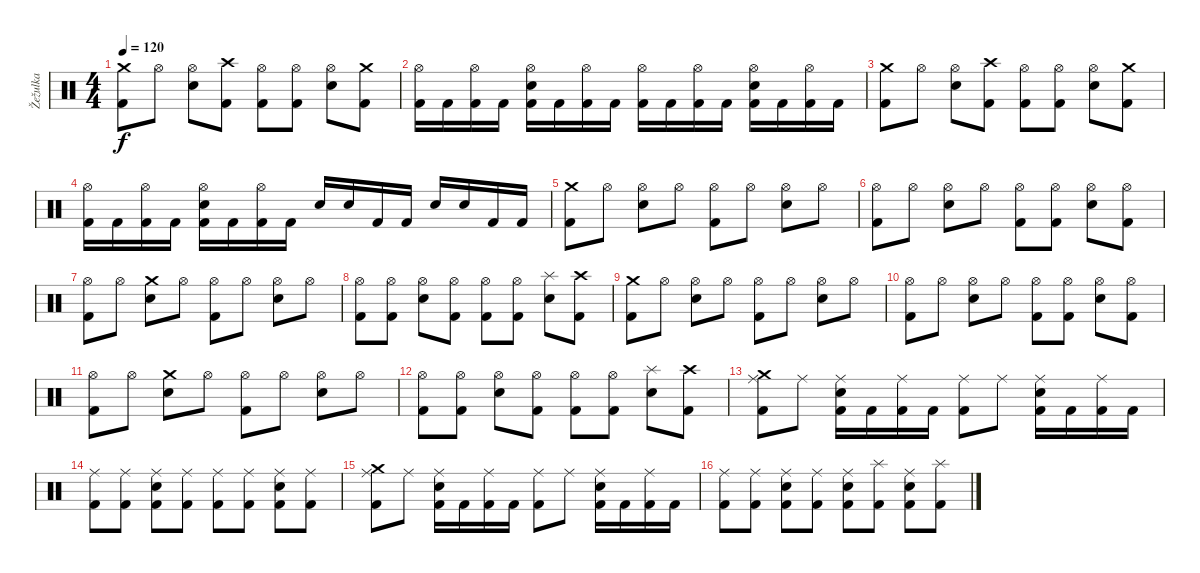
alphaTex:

\track ("Žežulka" "Žežulka") {instrument percussion}
\staff {score}
\articulation defaults
\ts (4 4)
\tempo 120
\clef neutral
\ks c
("Crash medium (hit)" "Kick (hit) 2").8{dy f} "Hi-Hat (open)".8 ("Hi-Hat (open)" "Snare (hit) 2").8 ("Crash high (hit)" "Kick (hit) 2").8 ("Hi-Hat (open)" "Kick (hit) 2").8 ("Hi-Hat (open)" "Kick (hit) 2").8 ("Hi-Hat (open)" "Snare (hit) 2").8 ("Crash medium (hit)" "Kick (hit) 2").8 |
("Hi-Hat (open)" "Kick (hit) 2").16 "Kick (hit) 2".16 ("Hi-Hat (open)" "Kick (hit) 2").16 "Kick (hit) 2".16 ("Hi-Hat (open)" "Snare (hit) 2" "Kick (hit) 2").16 "Kick (hit) 2".16 ("Hi-Hat (open)" "Kick (hit) 2").16 "Kick (hit) 2".16 ("Hi-Hat (open)" "Kick (hit) 2").16 "Kick (hit) 2".16 ("Hi-Hat (open)" "Kick (hit) 2").16 "Kick (hit) 2".16 ("Hi-Hat (open)" "Snare (hit) 2" "Kick (hit) 2").16 "Kick (hit) 2".16 ("Hi-Hat (open)" "Kick (hit) 2").16 "Kick (hit) 2".16 |
("Crash medium (hit)" "Kick (hit) 2").8 "Hi-Hat (open)".8 ("Hi-Hat (open)" "Snare (hit) 2").8 ("Crash high (hit)" "Kick (hit) 2").8 ("Hi-Hat (open)" "Kick (hit) 2").8 ("Hi-Hat (open)" "Kick (hit) 2").8 ("Hi-Hat (open)" "Snare (hit) 2").8 ("Crash medium (hit)" "Kick (hit) 2").8 |
("Hi-Hat (open)" "Kick (hit) 2").16 "Kick (hit) 2".16 ("Hi-Hat (open)" "Kick (hit) 2").16 "Kick (hit) 2".16 ("Hi-Hat (open)" "Snare (hit) 2" "Kick (hit) 2").16 "Kick (hit) 2".16 ("Hi-Hat (open)" "Kick (hit) 2").16 "Kick (hit) 2".16 "Snare (hit) 2".16 "Snare (hit) 2".16 "Kick (hit) 2".16 "Kick (hit) 2".16 "Snare (hit) 2".16 "Snare (hit) 2".16 "Kick (hit) 2".16 "Kick (hit) 2".16 |
("Crash medium (hit)" "Kick (hit) 2").8 "Hi-Hat (open)".8 ("Hi-Hat (open)" "Snare (hit) 2").8 "Hi-Hat (open)".8 ("Hi-Hat (open)" "Kick (hit) 2").8 "Hi-Hat (open)".8 ("Hi-Hat (open)" "Snare (hit) 2").8 "Hi-Hat (open)".8 |
("Hi-Hat (open)" "Kick (hit) 2").8 "Hi-Hat (open)".8 ("Hi-Hat (open)" "Snare (hit) 2").8 "Hi-Hat (open)".8 ("Hi-Hat (open)" "Kick (hit) 2").8 ("Hi-Hat (open)" "Kick (hit) 2").8 ("Hi-Hat (open)" "Snare (hit) 2").8 ("Hi-Hat (open)" "Kick (hit) 2").8 |
("Hi-Hat (open)" "Kick (hit) 2").8 "Hi-Hat (open)".8 ("Crash medium (hit)" "Snare (hit) 2").8 "Hi-Hat (open)".8 ("Hi-Hat (open)" "Kick (hit) 2").8 "Hi-Hat (open)".8 ("Hi-Hat (open)" "Snare (hit) 2").8 "Hi-Hat (open)".8 |
("Hi-Hat (open)" "Kick (hit) 2").8 ("Hi-Hat (open)" "Kick (hit) 2").8 ("Hi-Hat (open)" "Snare (hit) 2").8 ("Hi-Hat (open)" "Kick (hit) 2").8 ("Hi-Hat (open)" "Kick (hit) 2").8 ("Hi-Hat (open)" "Kick (hit) 2").8 ("Splash (hit)" "Snare (hit) 2").8 ("Crash high (hit)" "Kick (hit) 2").8 |
("Crash medium (hit)" "Kick (hit) 2").8 "Hi-Hat (open)".8 ("Hi-Hat (open)" "Snare (hit) 2").8 "Hi-Hat (open)".8 ("Hi-Hat (open)" "Kick (hit) 2").8 "Hi-Hat (open)".8 ("Hi-Hat (open)" "Snare (hit) 2").8 "Hi-Hat (open)".8 |
("Hi-Hat (open)" "Kick (hit) 2").8 "Hi-Hat (open)".8 ("Hi-Hat (open)" "Snare (hit) 2").8 "Hi-Hat (open)".8 ("Hi-Hat (open)" "Kick (hit) 2").8 ("Hi-Hat (open)" "Kick (hit) 2").8 ("Hi-Hat (open)" "Snare (hit) 2").8 ("Hi-Hat (open)" "Kick (hit) 2").8 |
("Hi-Hat (open)" "Kick (hit) 2").8 "Hi-Hat (open)".8 ("Crash medium (hit)" "Snare (hit) 2").8 "Hi-Hat (open)".8 ("Hi-Hat (open)" "Kick (hit) 2").8 "Hi-Hat (open)".8 ("Hi-Hat (open)" "Snare (hit) 2").8 "Hi-Hat (open)".8 |
("Hi-Hat (open)" "Kick (hit) 2").8 ("Hi-Hat (open)" "Kick (hit) 2").8 ("Hi-Hat (open)" "Snare (hit) 2").8 ("Hi-Hat (open)" "Kick (hit) 2").8 ("Hi-Hat (open)" "Kick (hit) 2").8 ("Hi-Hat (open)" "Kick (hit) 2").8 ("Splash (hit)" "Snare (hit) 2").8 ("Crash high (hit)" "Kick (hit) 2").8 |
("Crash medium (hit)" "Ride (middle)" "Kick (hit) 2").8 "Ride (middle)".8 ("Ride (middle)" "Snare (hit) 2" "Kick (hit) 2").16 "Kick (hit) 2".16 ("Ride (middle)" "Kick (hit) 2").16 "Kick (hit) 2".16 ("Ride (middle)" "Kick (hit) 2").8 "Ride (middle)".8 ("Ride (middle)" "Snare (hit) 2" "Kick (hit) 2").16 "Kick (hit) 2".16 ("Ride (middle)" "Kick (hit) 2").16 "Kick (hit) 2".16 |
("Ride (middle)" "Kick (hit) 2").8 ("Ride (middle)" "Kick (hit) 2").8 ("Ride (middle)" "Snare (hit) 2" "Kick (hit) 2").8 ("Ride (middle)" "Kick (hit) 2").8 ("Ride (middle)" "Kick (hit) 2").8 ("Ride (middle)" "Kick (hit) 2").8 ("Ride (middle)" "Snare (hit) 2" "Kick (hit) 2").8 ("Ride (middle)" "Kick (hit) 2").8 |
("Crash medium (hit)" "Ride (middle)" "Kick (hit) 2").8 "Ride (middle)".8 ("Ride (middle)" "Snare (hit) 2" "Kick (hit) 2").16 "Kick (hit) 2".16 ("Ride (middle)" "Kick (hit) 2").16 "Kick (hit) 2".16 ("Ride (middle)" "Kick (hit) 2").8 "Ride (middle)".8 ("Ride (middle)" "Snare (hit) 2" "Kick (hit) 2").16 "Kick (hit) 2".16 ("Ride (middle)" "Kick (hit) 2").16 "Kick (hit) 2".16 |
("Ride (middle)" "Kick (hit) 2").8 ("Ride (middle)" "Kick (hit) 2").8 ("Ride (middle)" "Snare (hit) 2" "Kick (hit) 2").8 ("Ride (middle)" "Kick (hit) 2").8 ("Ride (middle)" "Snare (hit) 2" "Kick (hit) 2").8 ("Splash (hit)" "Kick (hit) 2").8 ("Ride (middle)" "Snare (hit) 2" "Kick (hit) 2").8 ("Splash (hit)" "Kick (hit) 2").8
